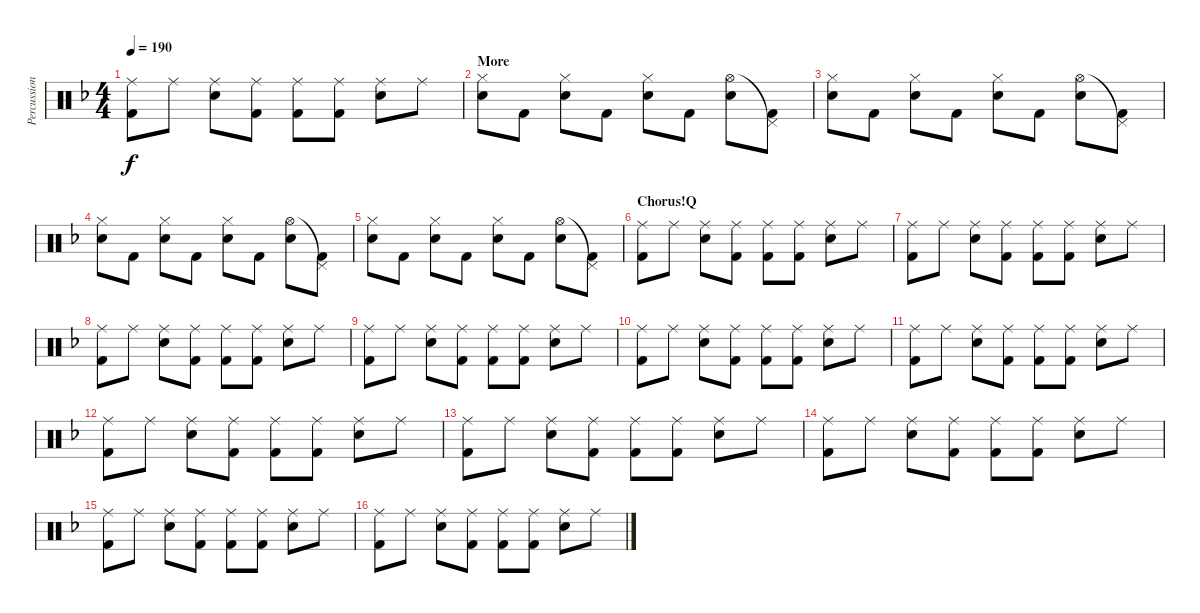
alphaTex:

\track ("Percussion" "Percussion") {instrument percussion}
\staff {score}
\articulation defaults
\ts (4 4)
\tempo 190
\clef neutral
\ks f
("Ride (middle)" "Kick (hit) 2").8{dy f} "Ride (middle)".8 ("Ride (middle)" "Snare (hit) 2").8 ("Ride (middle)" "Kick (hit) 2").8 ("Ride (middle)" "Kick (hit) 2").8 ("Ride (middle)" "Kick (hit) 2").8 ("Ride (middle)" "Snare (hit) 2").8 "Ride (middle)".8 |
\section ("" "More")
("Hi-Hat (closed)" "Snare (hit) 2").8 "Kick (hit) 2".8 ("Hi-Hat (closed)" "Snare (hit) 2").8 "Kick (hit) 2".8 ("Hi-Hat (closed)" "Snare (hit) 2").8 "Kick (hit) 2".8 ("Hi-Hat (open)" "Snare (hit) 2").8 ("Pedal Hi-Hat (hit)"{t} "Kick (hit) 2").8 |
("Hi-Hat (closed)" "Snare (hit) 2").8 "Kick (hit) 2".8 ("Hi-Hat (closed)" "Snare (hit) 2").8 "Kick (hit) 2".8 ("Hi-Hat (closed)" "Snare (hit) 2").8 "Kick (hit) 2".8 ("Hi-Hat (open)" "Snare (hit) 2").8 ("Pedal Hi-Hat (hit)"{t} "Kick (hit) 2").8 |
("Hi-Hat (closed)" "Snare (hit) 2").8 "Kick (hit) 2".8 ("Hi-Hat (closed)" "Snare (hit) 2").8 "Kick (hit) 2".8 ("Hi-Hat (closed)" "Snare (hit) 2").8 "Kick (hit) 2".8 ("Hi-Hat (open)" "Snare (hit) 2").8 ("Pedal Hi-Hat (hit)"{t} "Kick (hit) 2").8 |
("Hi-Hat (closed)" "Snare (hit) 2").8 "Kick (hit) 2".8 ("Hi-Hat (closed)" "Snare (hit) 2").8 "Kick (hit) 2".8 ("Hi-Hat (closed)" "Snare (hit) 2").8 "Kick (hit) 2".8 ("Hi-Hat (open)" "Snare (hit) 2").8 ("Pedal Hi-Hat (hit)"{t} "Kick (hit) 2").8 |
\section ("" "Chorus!Q")
("Ride (middle)" "Kick (hit) 2").8 "Ride (middle)".8 ("Ride (middle)" "Snare (hit) 2").8 ("Ride (middle)" "Kick (hit) 2").8 ("Ride (middle)" "Kick (hit) 2").8 ("Ride (middle)" "Kick (hit) 2").8 ("Ride (middle)" "Snare (hit) 2").8 "Ride (middle)".8 |
("Ride (middle)" "Kick (hit) 2").8 "Ride (middle)".8 ("Ride (middle)" "Snare (hit) 2").8 ("Ride (middle)" "Kick (hit) 2").8 ("Ride (middle)" "Kick (hit) 2").8 ("Ride (middle)" "Kick (hit) 2").8 ("Ride (middle)" "Snare (hit) 2").8 "Ride (middle)".8 |
("Ride (middle)" "Kick (hit) 2").8 "Ride (middle)".8 ("Ride (middle)" "Snare (hit) 2").8 ("Ride (middle)" "Kick (hit) 2").8 ("Ride (middle)" "Kick (hit) 2").8 ("Ride (middle)" "Kick (hit) 2").8 ("Ride (middle)" "Snare (hit) 2").8 "Ride (middle)".8 |
("Ride (middle)" "Kick (hit) 2").8 "Ride (middle)".8 ("Ride (middle)" "Snare (hit) 2").8 ("Ride (middle)" "Kick (hit) 2").8 ("Ride (middle)" "Kick (hit) 2").8 ("Ride (middle)" "Kick (hit) 2").8 ("Ride (middle)" "Snare (hit) 2").8 "Ride (middle)".8 |
("Ride (middle)" "Kick (hit) 2").8 "Ride (middle)".8 ("Ride (middle)" "Snare (hit) 2").8 ("Ride (middle)" "Kick (hit) 2").8 ("Ride (middle)" "Kick (hit) 2").8 ("Ride (middle)" "Kick (hit) 2").8 ("Ride (middle)" "Snare (hit) 2").8 "Ride (middle)".8 |
("Ride (middle)" "Kick (hit) 2").8 "Ride (middle)".8 ("Ride (middle)" "Snare (hit) 2").8 ("Ride (middle)" "Kick (hit) 2").8 ("Ride (middle)" "Kick (hit) 2").8 ("Ride (middle)" "Kick (hit) 2").8 ("Ride (middle)" "Snare (hit) 2").8 "Ride (middle)".8 |
("Ride (middle)" "Kick (hit) 2").8 "Ride (middle)".8 ("Ride (middle)" "Snare (hit) 2").8 ("Ride (middle)" "Kick (hit) 2").8 ("Ride (middle)" "Kick (hit) 2").8 ("Ride (middle)" "Kick (hit) 2").8 ("Ride (middle)" "Snare (hit) 2").8 "Ride (middle)".8 |
("Ride (middle)" "Kick (hit) 2").8 "Ride (middle)".8 ("Ride (middle)" "Snare (hit) 2").8 ("Ride (middle)" "Kick (hit) 2").8 ("Ride (middle)" "Kick (hit) 2").8 ("Ride (middle)" "Kick (hit) 2").8 ("Ride (middle)" "Snare (hit) 2").8 "Ride (middle)".8 |
("Ride (middle)" "Kick (hit) 2").8 "Ride (middle)".8 ("Ride (middle)" "Snare (hit) 2").8 ("Ride (middle)" "Kick (hit) 2").8 ("Ride (middle)" "Kick (hit) 2").8 ("Ride (middle)" "Kick (hit) 2").8 ("Ride (middle)" "Snare (hit) 2").8 "Ride (middle)".8 |
("Ride (middle)" "Kick (hit) 2").8 "Ride (middle)".8 ("Ride (middle)" "Snare (hit) 2").8 ("Ride (middle)" "Kick (hit) 2").8 ("Ride (middle)" "Kick (hit) 2").8 ("Ride (middle)" "Kick (hit) 2").8 ("Ride (middle)" "Snare (hit) 2").8 "Ride (middle)".8 |
("Ride (middle)" "Kick (hit) 2").8 "Ride (middle)".8 ("Ride (middle)" "Snare (hit) 2").8 ("Ride (middle)" "Kick (hit) 2").8 ("Ride (middle)" "Kick (hit) 2").8 ("Ride (middle)" "Kick (hit) 2").8 ("Ride (middle)" "Snare (hit) 2").8 "Ride (middle)".8
